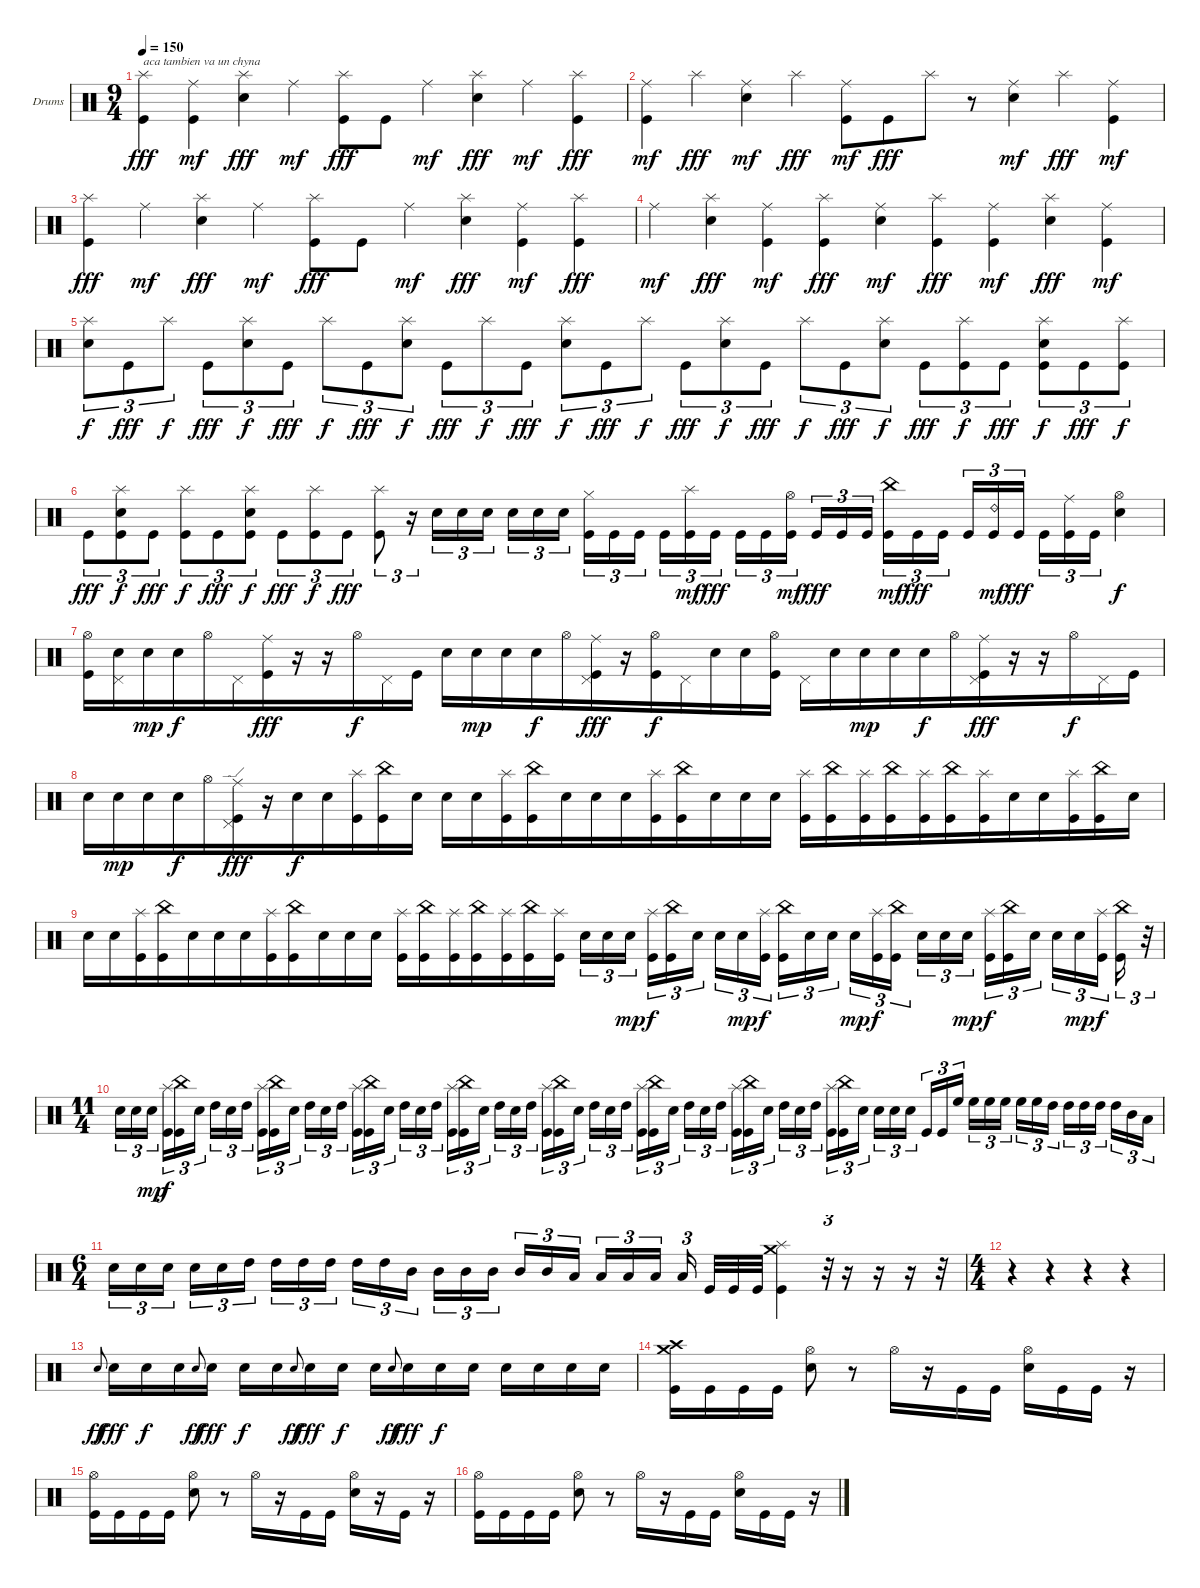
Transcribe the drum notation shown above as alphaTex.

\bracketExtendMode groupsimilarinstruments
\firstSystemTrackNameOrientation horizontal
\otherSystemsTrackNameOrientation horizontal
\track ("Ударные" "Drums") {instrument percussion}
\staff {score}
\articulation defaults
\ts (9 4)
\beaming (8 6 6 6)
\tempo 150
\clef neutral
\ks c
("Splash (hit)" "Kick (hit)").4{txt "aca tambien va un chyna" dy fff} ("Ride (middle)" "Kick (hit)").4{dy mf} ("Splash (hit)" "Snare (hit) 2").4{dy fff} "Ride (middle)".4{dy mf} ("Splash (hit)" "Kick (hit)").8{dy fff} "Kick (hit)".8 "Ride (middle)".4{dy mf} ("Splash (hit)" "Snare (hit) 2").4{dy fff} "Ride (middle)".4{dy mf} ("Splash (hit)" "Kick (hit)").4{dy fff} |
("Ride (middle)" "Kick (hit)").4{dy mf} "Splash (hit)".4{dy fff} ("Ride (middle)" "Snare (hit) 2").4{dy mf} "Splash (hit)".4{dy fff} ("Ride (middle)" "Kick (hit)").8{dy mf} "Kick (hit)".8{dy fff} "Splash (hit)".8 r.8 ("Ride (middle)" "Snare (hit) 2").4{dy mf} "Splash (hit)".4{dy fff} ("Ride (middle)" "Kick (hit)").4{dy mf} |
("Splash (hit)" "Kick (hit)").4{dy fff} "Ride (middle)".4{dy mf} ("Splash (hit)" "Snare (hit) 2").4{dy fff} "Ride (middle)".4{dy mf} ("Splash (hit)" "Kick (hit)").8{dy fff} "Kick (hit)".8 "Ride (middle)".4{dy mf} ("Splash (hit)" "Snare (hit) 2").4{dy fff} ("Ride (middle)" "Kick (hit)").4{dy mf} ("Splash (hit)" "Kick (hit)").4{dy fff} |
"Ride (middle)".4{dy mf} ("Splash (hit)" "Snare (hit) 2").4{dy fff} ("Ride (middle)" "Kick (hit)").4{dy mf} ("Splash (hit)" "Kick (hit)").4{dy fff} ("Ride (middle)" "Snare (hit) 2").4{dy mf} ("Splash (hit)" "Kick (hit)").4{dy fff} ("Ride (middle)" "Kick (hit)").4{dy mf} ("Splash (hit)" "Snare (hit) 2").4{dy fff} ("Ride (middle)" "Kick (hit)").4{dy mf} |
("Splash (hit)" "Snare (hit) 2").8{tu (3 2) dy f} "Kick (hit)".8{tu (3 2) dy fff} "Splash (hit)".8{tu (3 2) dy f} "Kick (hit)".8{tu (3 2) dy fff} ("Splash (hit)" "Snare (hit) 2").8{tu (3 2) dy f} "Kick (hit)".8{tu (3 2) dy fff} "Splash (hit)".8{tu (3 2) dy f} "Kick (hit)".8{tu (3 2) dy fff} ("Splash (hit)" "Snare (hit) 2").8{tu (3 2) dy f} "Kick (hit)".8{tu (3 2) dy fff} "Splash (hit)".8{tu (3 2) dy f} "Kick (hit)".8{tu (3 2) dy fff} ("Splash (hit)" "Snare (hit) 2").8{tu (3 2) dy f} "Kick (hit)".8{tu (3 2) dy fff} "Splash (hit)".8{tu (3 2) dy f} "Kick (hit)".8{tu (3 2) dy fff} ("Splash (hit)" "Snare (hit) 2").8{tu (3 2) dy f} "Kick (hit)".8{tu (3 2) dy fff} "Splash (hit)".8{tu (3 2) dy f} "Kick (hit)".8{tu (3 2) dy fff} ("Splash (hit)" "Snare (hit) 2").8{tu (3 2) dy f} "Kick (hit)".8{tu (3 2) dy fff} ("Splash (hit)" "Kick (hit)").8{tu (3 2) dy f} "Kick (hit)".8{tu (3 2) dy fff} ("Splash (hit)" "Snare (hit) 2" "Kick (hit)").8{tu (3 2) dy f} "Kick (hit)".8{tu (3 2) dy fff} ("Splash (hit)" "Kick (hit)").8{tu (3 2) dy f} |
"Kick (hit)".8{tu (3 2) dy fff} ("Splash (hit)" "Snare (hit) 2" "Kick (hit)").8{tu (3 2) dy f} "Kick (hit)".8{tu (3 2) dy fff} ("Splash (hit)" "Kick (hit)").8{tu (3 2) dy f} "Kick (hit)".8{tu (3 2) dy fff} ("Splash (hit)" "Snare (hit) 2" "Kick (hit)").8{tu (3 2) dy f} "Kick (hit)".8{tu (3 2) dy fff} ("Splash (hit)" "Kick (hit)").8{tu (3 2) dy f} "Kick (hit)".8{tu (3 2) dy fff} ("Splash (hit)" "Kick (hit)").8{tu (3 2)} r.16{tu (3 2)} "Snare (hit) 2".16{tu (3 2)} "Snare (hit) 2".16{tu (3 2)} "Snare (hit) 2".16{tu (3 2)} "Snare (hit) 2".16{tu (3 2)} "Snare (hit) 2".16{tu (3 2)} "Snare (hit) 2".16{tu (3 2)} ("Hi-Hat (closed)" "Kick (hit)").16{tu (3 2)} "Kick (hit)".16{tu (3 2)} "Kick (hit)".16{tu (3 2)} "Kick (hit)".16{tu (3 2)} ("Splash (hit)" "Kick (hit)").16{tu (3 2) dy mf} "Kick (hit)".16{tu (3 2) dy fff} "Kick (hit)".16{tu (3 2)} "Kick (hit)".16{tu (3 2)} ("Hi-Hat (open)" "Kick (hit)").16{tu (3 2) dy mf} "Kick (hit)".16{tu (3 2) dy fff} "Kick (hit)".16{tu (3 2)} "Kick (hit)".16{tu (3 2)} ("China (hit)" "Kick (hit)").16{tu (3 2) dy mf} "Kick (hit)".16{tu (3 2) dy fff} "Kick (hit)".16{tu (3 2)} "Kick (hit)".16{tu (3 2)} ("Ride (bell) 2" "Kick (hit)").16{tu (3 2) dy mf} "Kick (hit)".16{tu (3 2) dy fff} "Kick (hit)".16{tu (3 2)} ("Ride (middle)" "Kick (hit)").16{tu (3 2)} "Kick (hit)".16{tu (3 2)} ("Hi-Hat (open)" "Snare (hit) 2").4{dy f} |
("Hi-Hat (open)" "Kick (hit)").16 ("Pedal Hi-Hat (hit)" "Snare (hit) 2").16 "Snare (hit) 2".16{dy mp} "Snare (hit) 2".16{dy f} "Hi-Hat (open)".16 "Pedal Hi-Hat (hit)".16 ("Ride (middle)" "Kick (hit)").16{dy fff} r.16 r.16 "Hi-Hat (open)".16{dy f} "Pedal Hi-Hat (hit)".16 "Kick (hit)".16 "Snare (hit) 2".16 "Snare (hit) 2".16{dy mp} "Snare (hit) 2".16 "Snare (hit) 2".16{dy f} "Hi-Hat (open)".16 ("Ride (middle)" "Pedal Hi-Hat (hit)" "Kick (hit)").16{dy fff} r.16 ("Hi-Hat (open)" "Kick (hit)").16{dy f} "Pedal Hi-Hat (hit)".16 "Snare (hit) 2".16 "Snare (hit) 2".16 ("Hi-Hat (open)" "Kick (hit)").16 "Pedal Hi-Hat (hit)".16 "Snare (hit) 2".16 "Snare (hit) 2".16{dy mp} "Snare (hit) 2".16 "Snare (hit) 2".16{dy f} "Hi-Hat (open)".16 ("Ride (middle)" "Pedal Hi-Hat (hit)" "Kick (hit)").16{dy fff} r.16 r.16 "Hi-Hat (open)".16{dy f} "Pedal Hi-Hat (hit)".16 "Kick (hit)".16 |
"Snare (hit) 2".16 "Snare (hit) 2".16{dy mp} "Snare (hit) 2".16 "Snare (hit) 2".16{dy f} "Hi-Hat (open)".16 ("Ride (edge)" "Pedal Hi-Hat (hit)" "Kick (hit)").16{dy fff} r.16 "Snare (hit) 2".16{dy f} "Snare (hit) 2".16 ("Splash (hit)" "Kick (hit)").16 ("China (hit)" "Kick (hit)").16 "Snare (hit) 2".16 "Snare (hit) 2".16 "Snare (hit) 2".16 ("Splash (hit)" "Kick (hit)").16 ("China (hit)" "Kick (hit)").16 "Snare (hit) 2".16 "Snare (hit) 2".16 "Snare (hit) 2".16 ("Splash (hit)" "Kick (hit)").16 ("China (hit)" "Kick (hit)").16 "Snare (hit) 2".16 "Snare (hit) 2".16 "Snare (hit) 2".16 ("Splash (hit)" "Kick (hit)").16 ("China (hit)" "Kick (hit)").16 ("Splash (hit)" "Kick (hit)").16 ("China (hit)" "Kick (hit)").16 ("Splash (hit)" "Kick (hit)").16 ("China (hit)" "Kick (hit)").16 ("Splash (hit)" "Kick (hit)").16 "Snare (hit) 2".16 "Snare (hit) 2".16 ("Splash (hit)" "Kick (hit)").16 ("China (hit)" "Kick (hit)").16 "Snare (hit) 2".16 |
"Snare (hit) 2".16 "Snare (hit) 2".16 ("Splash (hit)" "Kick (hit)").16 ("China (hit)" "Kick (hit)").16 "Snare (hit) 2".16 "Snare (hit) 2".16 "Snare (hit) 2".16 ("Splash (hit)" "Kick (hit)").16 ("China (hit)" "Kick (hit)").16 "Snare (hit) 2".16 "Snare (hit) 2".16 "Snare (hit) 2".16 ("Splash (hit)" "Kick (hit)").16 ("China (hit)" "Kick (hit)").16 ("Splash (hit)" "Kick (hit)").16 ("China (hit)" "Kick (hit)").16 ("Splash (hit)" "Kick (hit)").16 ("China (hit)" "Kick (hit)").16 ("Splash (hit)" "Kick (hit)").16 "Snare (hit) 2".16{tu (3 2)} "Snare (hit) 2".16{tu (3 2)} "Snare (hit) 2".16{tu (3 2) dy mp} ("Splash (hit)" "Kick (hit)").16{tu (3 2) dy f} ("China (hit)" "Kick (hit)").16{tu (3 2)} "Snare (hit) 2".16{tu (3 2)} "Snare (hit) 2".16{tu (3 2)} "Snare (hit) 2".16{tu (3 2) dy mp} ("Splash (hit)" "Kick (hit)").16{tu (3 2) dy f} ("China (hit)" "Kick (hit)").16{tu (3 2)} "Snare (hit) 2".16{tu (3 2)} "Snare (hit) 2".16{tu (3 2)} "Snare (hit) 2".16{tu (3 2) dy mp} ("Splash (hit)" "Kick (hit)").16{tu (3 2) dy f} ("China (hit)" "Kick (hit)").16{tu (3 2)} "Snare (hit) 2".16{tu (3 2)} "Snare (hit) 2".16{tu (3 2)} "Snare (hit) 2".16{tu (3 2) dy mp} ("Splash (hit)" "Kick (hit)").16{tu (3 2) dy f} ("China (hit)" "Kick (hit)").16{tu (3 2)} "Snare (hit) 2".16{tu (3 2)} "Snare (hit) 2".16{tu (3 2)} "Snare (hit) 2".16{tu (3 2) dy mp} ("Splash (hit)" "Kick (hit)").16{tu (3 2) dy f} ("China (hit)" "Kick (hit)").16{tu (3 2)} r.32{tu (3 2)} |
\ts (11 4)
\beaming (8 6 6 6 4)
"Snare (hit) 2".16{tu (3 2)} "Snare (hit) 2".16{tu (3 2)} "Snare (hit) 2".16{tu (3 2) dy mp} ("Splash (hit)" "Kick (hit)").16{tu (3 2) dy f} ("China (hit)" "Kick (hit)").16{tu (3 2)} "Snare (hit) 2".16{tu (3 2)} "High Tom (hit)".16{tu (3 2)} "Snare (hit) 2".16{tu (3 2)} "High Tom (hit)".16{tu (3 2)} ("Splash (hit)" "Kick (hit)").16{tu (3 2)} ("China (hit)" "Kick (hit)").16{tu (3 2)} "Snare (hit) 2".16{tu (3 2)} "High Tom (hit)".16{tu (3 2)} "Snare (hit) 2".16{tu (3 2)} "High Tom (hit)".16{tu (3 2)} ("Splash (hit)" "Kick (hit)").16{tu (3 2)} ("China (hit)" "Kick (hit)").16{tu (3 2)} "Snare (hit) 2".16{tu (3 2)} "High Tom (hit)".16{tu (3 2)} "Snare (hit) 2".16{tu (3 2)} "High Tom (hit)".16{tu (3 2)} ("Splash (hit)" "Kick (hit)").16{tu (3 2)} ("China (hit)" "Kick (hit)").16{tu (3 2)} "Snare (hit) 2".16{tu (3 2)} "High Tom (hit)".16{tu (3 2)} "Snare (hit) 2".16{tu (3 2)} "High Tom (hit)".16{tu (3 2)} ("Splash (hit)" "Kick (hit)").16{tu (3 2)} ("China (hit)" "Kick (hit)").16{tu (3 2)} "Snare (hit) 2".16{tu (3 2)} "High Tom (hit)".16{tu (3 2)} "Snare (hit) 2".16{tu (3 2)} "High Tom (hit)".16{tu (3 2)} ("Splash (hit)" "Kick (hit)").16{tu (3 2)} ("China (hit)" "Kick (hit)").16{tu (3 2)} "Snare (hit) 2".16{tu (3 2)} "High Tom (hit)".16{tu (3 2)} "Snare (hit) 2".16{tu (3 2)} "High Tom (hit)".16{tu (3 2)} ("Splash (hit)" "Kick (hit)").16{tu (3 2)} ("China (hit)" "Kick (hit)").16{tu (3 2)} "Snare (hit) 2".16{tu (3 2)} "High Tom (hit)".16{tu (3 2)} "Snare (hit) 2".16{tu (3 2)} "High Tom (hit)".16{tu (3 2)} ("Splash (hit)" "Kick (hit)").16{tu (3 2)} ("China (hit)" "Kick (hit)").16{tu (3 2)} "Snare (hit) 2".16{tu (3 2)} "Snare (hit) 2".16{tu (3 2)} "Snare (hit) 2".16{tu (3 2)} "Snare (hit) 2".16{tu (3 2)} "Kick (hit)".16{tu (3 2)} "Kick (hit)".16{tu (3 2)} "High Floor Tom (hit)".16{tu (3 2)} "High Floor Tom (hit)".16{tu (3 2)} "High Floor Tom (hit)".16{tu (3 2)} "High Floor Tom (hit)".16{tu (3 2)} "High Floor Tom (hit)".16{tu (3 2)} "High Floor Tom (hit)".16{tu (3 2)} "High Tom (hit)".16{tu (3 2)} "High Tom (hit)".16{tu (3 2)} "High Tom (hit)".16{tu (3 2)} "High Tom (hit)".16{tu (3 2)} "High Tom (hit)".16{tu (3 2)} "Mid Tom (hit)".16{tu (3 2)} "Low Tom (hit)".16{tu (3 2)} |
\ts (6 4)
\beaming (8 6 6)
"Snare (hit) 2".16{tu (3 2)} "Snare (hit) 2".16{tu (3 2)} "Snare (hit) 2".16{tu (3 2)} "Snare (hit) 2".16{tu (3 2)} "Snare (hit) 2".16{tu (3 2)} "High Tom (hit)".16{tu (3 2)} "High Tom (hit)".16{tu (3 2)} "High Tom (hit)".16{tu (3 2)} "High Tom (hit)".16{tu (3 2)} "High Tom (hit)".16{tu (3 2)} "High Tom (hit)".16{tu (3 2)} "Mid Tom (hit)".16{tu (3 2)} "Mid Tom (hit)".16{tu (3 2)} "Mid Tom (hit)".16{tu (3 2)} "Mid Tom (hit)".16{tu (3 2)} "Mid Tom (hit)".16{tu (3 2)} "Mid Tom (hit)".16{tu (3 2)} "Low Tom (hit)".16{tu (3 2)} "Low Tom (hit)".16{tu (3 2)} "Low Tom (hit)".16{tu (3 2)} "Low Tom (hit)".16{tu (3 2)} "Low Tom (hit)".16{tu (3 2)} "Kick (hit)".32 "Kick (hit)".32 "Kick (hit)".32 ("Crash medium (hit)" "Splash (hit)" "Kick (hit)").4 r.32{tu (3 2)} r.16 r.16 r.16 r.32 |
\ts (4 4)
\beaming (8 2 2 2 2)
r.4 r.4 r.4 r.4 |
"Snare (hit) 2".8{gr onbeat dy ff} "Snare (hit) 2".16{dy fff} "Snare (hit) 2".16{dy f} "Snare (hit) 2".16 "Snare (hit) 2".8{gr onbeat dy ff} "Snare (hit) 2".16{dy fff} "Snare (hit) 2".16{dy f} "Snare (hit) 2".16 "Snare (hit) 2".8{gr onbeat dy ff} "Snare (hit) 2".16{dy fff} "Snare (hit) 2".16{dy f} "Snare (hit) 2".16 "Snare (hit) 2".8{gr onbeat dy ff} "Snare (hit) 2".16{dy fff} "Snare (hit) 2".16{dy f} "Snare (hit) 2".16 "Snare (hit) 2".16 "Snare (hit) 2".16 "Snare (hit) 2".16 "Snare (hit) 2".16 |
("Crash medium (hit)" "Crash high (hit)" "Kick (hit)").16 "Kick (hit)".16 "Kick (hit)".16 "Kick (hit)".16 ("Hi-Hat (open)" "Snare (hit) 2").8 r.8 "Hi-Hat (open)".16 r.16 "Kick (hit)".16 "Kick (hit)".16 ("Hi-Hat (open)" "Snare (hit) 2").16 "Kick (hit)".16 "Kick (hit)".16 r.16 |
("Hi-Hat (open)" "Kick (hit)").16 "Kick (hit)".16 "Kick (hit)".16 "Kick (hit)".16 ("Hi-Hat (open)" "Snare (hit) 2").8 r.8 "Hi-Hat (open)".16 r.16 "Kick (hit)".16 "Kick (hit)".16 ("Hi-Hat (open)" "Snare (hit) 2").16 r.16 "Kick (hit)".16 r.16 |
("Hi-Hat (open)" "Kick (hit)").16 "Kick (hit)".16 "Kick (hit)".16 "Kick (hit)".16 ("Hi-Hat (open)" "Snare (hit) 2").8 r.8 "Hi-Hat (open)".16 r.16 "Kick (hit)".16 "Kick (hit)".16 ("Hi-Hat (open)" "Snare (hit) 2").16 "Kick (hit)".16 "Kick (hit)".16 r.16
